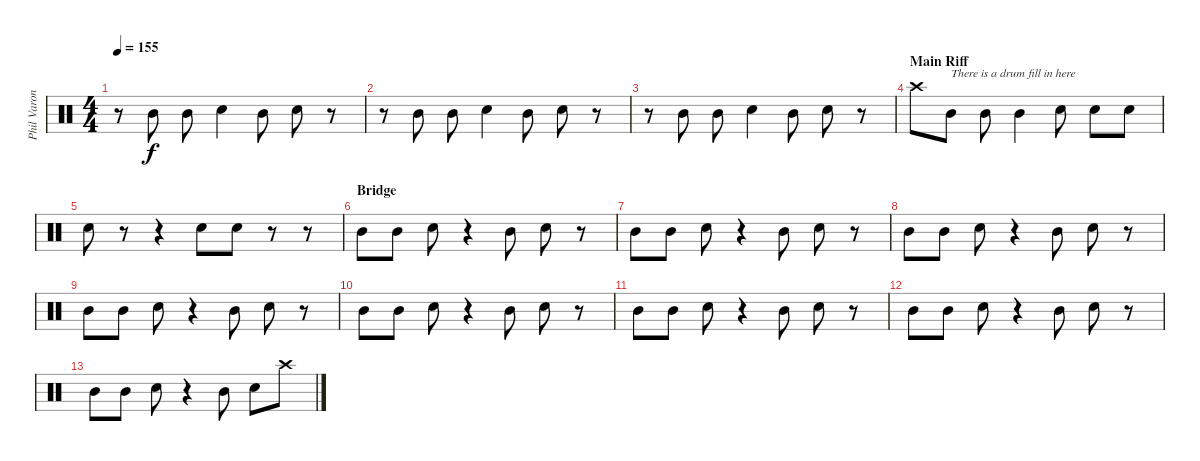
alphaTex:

\track ("Phil Varone" "Phil Varon") {instrument percussion}
\staff {score}
\articulation defaults
\ts (4 4)
\tempo 155
\clef neutral
\ks c
r.8{dy f} "Mid Tom (hit)".8 "Mid Tom (hit)".8 "Snare (hit) 2".4 "Mid Tom (hit)".8 "Snare (hit) 2".8 r.8 |
r.8 "Mid Tom (hit)".8 "Mid Tom (hit)".8 "Snare (hit) 2".4 "Mid Tom (hit)".8 "Snare (hit) 2".8 r.8 |
r.8 "Mid Tom (hit)".8 "Mid Tom (hit)".8 "Snare (hit) 2".4 "Mid Tom (hit)".8 "Snare (hit) 2".8 r.8 |
\section ("" "Main Riff")
"Crash high (hit)".8 "Mid Tom (hit)".8{txt "There is a drum fill in here"} "Mid Tom (hit)".8 "Mid Tom (hit)".4 "Snare (hit) 2".8 "Snare (hit) 2".8 "Snare (hit) 2".8 |
"Snare (hit) 2".8 r.8 r.4 "Snare (hit) 2".8 "Snare (hit) 2".8 r.8 r.8 |
\section ("" "Bridge")
"Mid Tom (hit)".8 "Mid Tom (hit)".8 "Snare (hit) 2".8 r.4 "Mid Tom (hit)".8 "Snare (hit) 2".8 r.8 |
"Mid Tom (hit)".8 "Mid Tom (hit)".8 "Snare (hit) 2".8 r.4 "Mid Tom (hit)".8 "Snare (hit) 2".8 r.8 |
"Mid Tom (hit)".8 "Mid Tom (hit)".8 "Snare (hit) 2".8 r.4 "Mid Tom (hit)".8 "Snare (hit) 2".8 r.8 |
"Mid Tom (hit)".8 "Mid Tom (hit)".8 "Snare (hit) 2".8 r.4 "Mid Tom (hit)".8 "Snare (hit) 2".8 r.8 |
"Mid Tom (hit)".8 "Mid Tom (hit)".8 "Snare (hit) 2".8 r.4 "Mid Tom (hit)".8 "Snare (hit) 2".8 r.8 |
"Mid Tom (hit)".8 "Mid Tom (hit)".8 "Snare (hit) 2".8 r.4 "Mid Tom (hit)".8 "Snare (hit) 2".8 r.8 |
"Mid Tom (hit)".8 "Mid Tom (hit)".8 "Snare (hit) 2".8 r.4 "Mid Tom (hit)".8 "Snare (hit) 2".8 r.8 |
"Mid Tom (hit)".8 "Mid Tom (hit)".8 "Snare (hit) 2".8 r.4 "Mid Tom (hit)".8 "Snare (hit) 2".8 "Crash high (hit)".8
